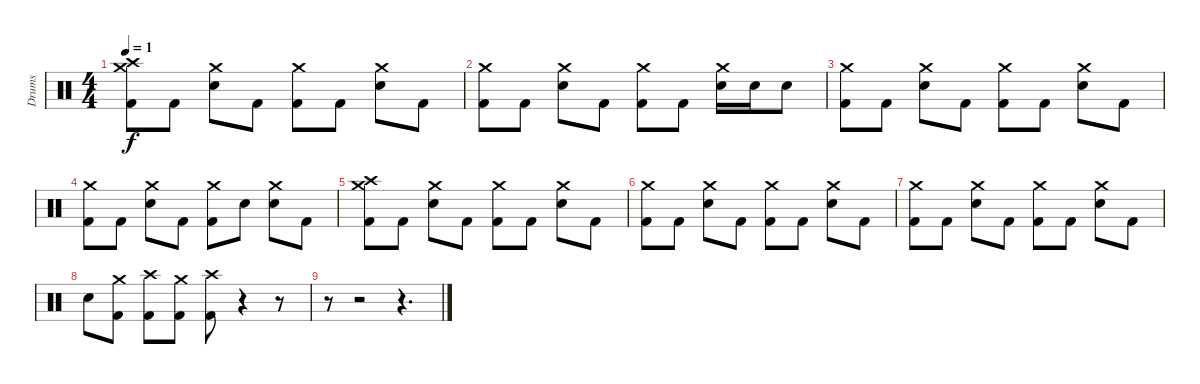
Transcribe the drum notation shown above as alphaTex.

\track ("Drums" "Drums") {instrument percussion}
\staff {score}
\articulation defaults
\ts (4 4)
\tempo 1
\clef neutral
\ks c
("Crash high (hit)" "Crash medium (hit)" "Kick (hit) 2").8{dy f} "Kick (hit) 2".8 ("Crash medium (hit)" "Snare (hit) 2").8 "Kick (hit) 2".8 ("Crash medium (hit)" "Kick (hit) 2").8 "Kick (hit) 2".8 ("Crash medium (hit)" "Snare (hit) 2").8 "Kick (hit) 2".8 |
("Crash medium (hit)" "Kick (hit) 2").8 "Kick (hit) 2".8 ("Crash medium (hit)" "Snare (hit) 2").8 "Kick (hit) 2".8 ("Crash medium (hit)" "Kick (hit) 2").8 "Kick (hit) 2".8 ("Crash medium (hit)" "Snare (hit) 2").16 "Snare (hit) 2".16 "Snare (hit) 2".8 |
("Crash medium (hit)" "Kick (hit) 2").8 "Kick (hit) 2".8 ("Crash medium (hit)" "Snare (hit) 2").8 "Kick (hit) 2".8 ("Crash medium (hit)" "Kick (hit) 2").8 "Kick (hit) 2".8 ("Crash medium (hit)" "Snare (hit) 2").8 "Kick (hit) 2".8 |
("Crash medium (hit)" "Kick (hit) 2").8 "Kick (hit) 2".8 ("Crash medium (hit)" "Snare (hit) 2").8 "Kick (hit) 2".8 ("Crash medium (hit)" "Kick (hit) 2").8 "Snare (hit) 2".8 ("Crash medium (hit)" "Snare (hit) 2").8 "Kick (hit) 2".8 |
("Crash high (hit)" "Crash medium (hit)" "Kick (hit) 2").8 "Kick (hit) 2".8 ("Crash medium (hit)" "Snare (hit) 2").8 "Kick (hit) 2".8 ("Crash medium (hit)" "Kick (hit) 2").8 "Kick (hit) 2".8 ("Crash medium (hit)" "Snare (hit) 2").8 "Kick (hit) 2".8 |
("Crash medium (hit)" "Kick (hit) 2").8 "Kick (hit) 2".8 ("Crash medium (hit)" "Snare (hit) 2").8 "Kick (hit) 2".8 ("Crash medium (hit)" "Kick (hit) 2").8 "Kick (hit) 2".8 ("Crash medium (hit)" "Snare (hit) 2").8 "Kick (hit) 2".8 |
("Crash medium (hit)" "Kick (hit) 2").8 "Kick (hit) 2".8 ("Crash medium (hit)" "Snare (hit) 2").8 "Kick (hit) 2".8 ("Crash medium (hit)" "Kick (hit) 2").8 "Kick (hit) 2".8 ("Crash medium (hit)" "Snare (hit) 2").8 "Kick (hit) 2".8 |
"Snare (hit) 2".8 ("Crash medium (hit)" "Kick (hit) 2").8 ("Crash high (hit)" "Kick (hit) 2").8 ("Crash medium (hit)" "Kick (hit) 2").8 ("Crash high (hit)" "Kick (hit) 2").8 r.4 r.8 |
r.8 r.2 r.4{d}
